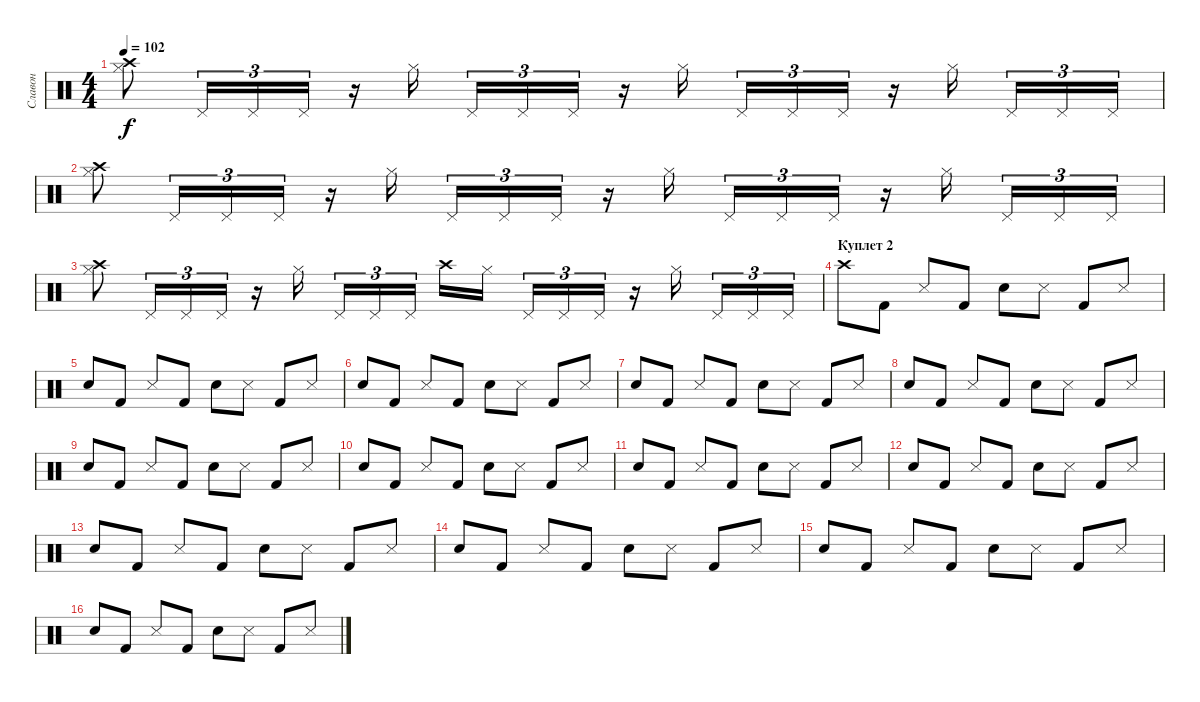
\track ("Славон" "Славон") {instrument percussion}
\staff {score}
\articulation defaults
\ts (4 4)
\tempo 102
\clef neutral
\ks c
("Hi-Hat (closed)" "Crash high (hit)").8{dy f} "Pedal Hi-Hat (hit)".16{tu (3 2)} "Pedal Hi-Hat (hit)".16{tu (3 2)} "Pedal Hi-Hat (hit)".16{tu (3 2)} r.16 "Hi-Hat (closed)".16 "Pedal Hi-Hat (hit)".16{tu (3 2)} "Pedal Hi-Hat (hit)".16{tu (3 2)} "Pedal Hi-Hat (hit)".16{tu (3 2)} r.16 "Hi-Hat (closed)".16 "Pedal Hi-Hat (hit)".16{tu (3 2)} "Pedal Hi-Hat (hit)".16{tu (3 2)} "Pedal Hi-Hat (hit)".16{tu (3 2)} r.16 "Hi-Hat (closed)".16 "Pedal Hi-Hat (hit)".16{tu (3 2)} "Pedal Hi-Hat (hit)".16{tu (3 2)} "Pedal Hi-Hat (hit)".16{tu (3 2)} |
("Hi-Hat (closed)" "Crash high (hit)").8 "Pedal Hi-Hat (hit)".16{tu (3 2)} "Pedal Hi-Hat (hit)".16{tu (3 2)} "Pedal Hi-Hat (hit)".16{tu (3 2)} r.16 "Hi-Hat (closed)".16 "Pedal Hi-Hat (hit)".16{tu (3 2)} "Pedal Hi-Hat (hit)".16{tu (3 2)} "Pedal Hi-Hat (hit)".16{tu (3 2)} r.16 "Hi-Hat (closed)".16 "Pedal Hi-Hat (hit)".16{tu (3 2)} "Pedal Hi-Hat (hit)".16{tu (3 2)} "Pedal Hi-Hat (hit)".16{tu (3 2)} r.16 "Hi-Hat (closed)".16 "Pedal Hi-Hat (hit)".16{tu (3 2)} "Pedal Hi-Hat (hit)".16{tu (3 2)} "Pedal Hi-Hat (hit)".16{tu (3 2)} |
("Hi-Hat (closed)" "Crash high (hit)").8 "Pedal Hi-Hat (hit)".16{tu (3 2)} "Pedal Hi-Hat (hit)".16{tu (3 2)} "Pedal Hi-Hat (hit)".16{tu (3 2)} r.16 "Hi-Hat (closed)".16 "Pedal Hi-Hat (hit)".16{tu (3 2)} "Pedal Hi-Hat (hit)".16{tu (3 2)} "Pedal Hi-Hat (hit)".16{tu (3 2)} "Crash high (hit)".16 "Hi-Hat (closed)".16 "Pedal Hi-Hat (hit)".16{tu (3 2)} "Pedal Hi-Hat (hit)".16{tu (3 2)} "Pedal Hi-Hat (hit)".16{tu (3 2)} r.16 "Hi-Hat (closed)".16 "Pedal Hi-Hat (hit)".16{tu (3 2)} "Pedal Hi-Hat (hit)".16{tu (3 2)} "Pedal Hi-Hat (hit)".16{tu (3 2)} |
\section ("" "Куплет 2")
"Crash high (hit)".8 "Kick (hit) 2".8 "Snare (side stick) 3".8 "Kick (hit) 2".8 "Snare (hit) 2".8 "Snare (side stick) 3".8 "Kick (hit) 2".8 "Snare (side stick) 3".8 |
"Snare (hit) 2".8 "Kick (hit) 2".8 "Snare (side stick) 3".8 "Kick (hit) 2".8 "Snare (hit) 2".8 "Snare (side stick) 3".8 "Kick (hit) 2".8 "Snare (side stick) 3".8 |
"Snare (hit) 2".8 "Kick (hit) 2".8 "Snare (side stick) 3".8 "Kick (hit) 2".8 "Snare (hit) 2".8 "Snare (side stick) 3".8 "Kick (hit) 2".8 "Snare (side stick) 3".8 |
"Snare (hit) 2".8 "Kick (hit) 2".8 "Snare (side stick) 3".8 "Kick (hit) 2".8 "Snare (hit) 2".8 "Snare (side stick) 3".8 "Kick (hit) 2".8 "Snare (side stick) 3".8 |
"Snare (hit) 2".8 "Kick (hit) 2".8 "Snare (side stick) 3".8 "Kick (hit) 2".8 "Snare (hit) 2".8 "Snare (side stick) 3".8 "Kick (hit) 2".8 "Snare (side stick) 3".8 |
"Snare (hit) 2".8 "Kick (hit) 2".8 "Snare (side stick) 3".8 "Kick (hit) 2".8 "Snare (hit) 2".8 "Snare (side stick) 3".8 "Kick (hit) 2".8 "Snare (side stick) 3".8 |
"Snare (hit) 2".8 "Kick (hit) 2".8 "Snare (side stick) 3".8 "Kick (hit) 2".8 "Snare (hit) 2".8 "Snare (side stick) 3".8 "Kick (hit) 2".8 "Snare (side stick) 3".8 |
"Snare (hit) 2".8 "Kick (hit) 2".8 "Snare (side stick) 3".8 "Kick (hit) 2".8 "Snare (hit) 2".8 "Snare (side stick) 3".8 "Kick (hit) 2".8 "Snare (side stick) 3".8 |
"Snare (hit) 2".8 "Kick (hit) 2".8 "Snare (side stick) 3".8 "Kick (hit) 2".8 "Snare (hit) 2".8 "Snare (side stick) 3".8 "Kick (hit) 2".8 "Snare (side stick) 3".8 |
"Snare (hit) 2".8 "Kick (hit) 2".8 "Snare (side stick) 3".8 "Kick (hit) 2".8 "Snare (hit) 2".8 "Snare (side stick) 3".8 "Kick (hit) 2".8 "Snare (side stick) 3".8 |
"Snare (hit) 2".8 "Kick (hit) 2".8 "Snare (side stick) 3".8 "Kick (hit) 2".8 "Snare (hit) 2".8 "Snare (side stick) 3".8 "Kick (hit) 2".8 "Snare (side stick) 3".8 |
"Snare (hit) 2".8 "Kick (hit) 2".8 "Snare (side stick) 3".8 "Kick (hit) 2".8 "Snare (hit) 2".8 "Snare (side stick) 3".8 "Kick (hit) 2".8 "Snare (side stick) 3".8 |
"Snare (hit) 2".8 "Kick (hit) 2".8 "Snare (side stick) 3".8 "Kick (hit) 2".8 "Snare (hit) 2".8 "Snare (side stick) 3".8 "Kick (hit) 2".8 "Snare (side stick) 3".8
